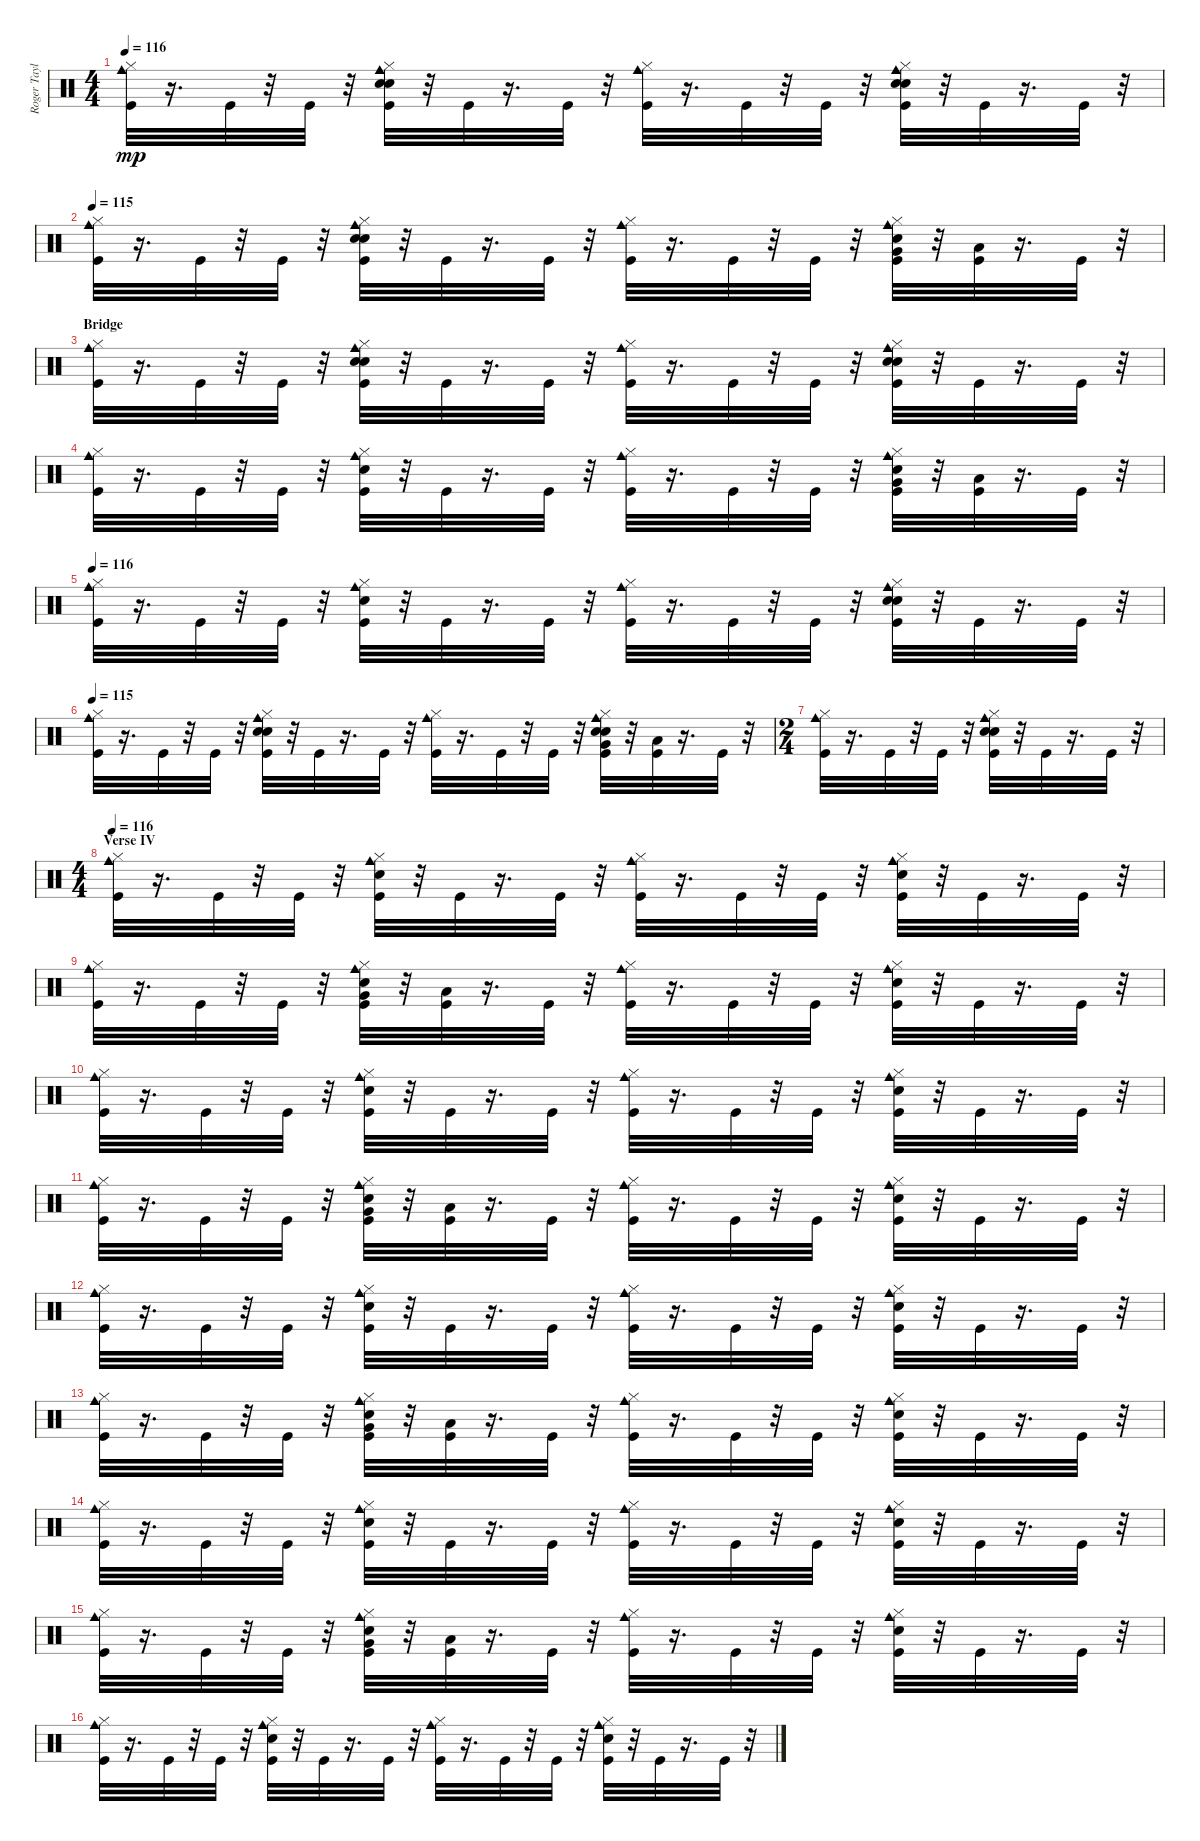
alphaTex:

\track ("Roger Taylor" "Roger Tayl") {instrument percussion}
\staff {score}
\articulation defaults
\ts (4 4)
\tempo 116
\clef neutral
\ks c
("Cowbell medium (hit)" "Hi-Hat (closed)" "Kick (hit)").32{dy mp} r.16{d} "Kick (hit)".32 r.32 "Kick (hit)".32 r.32 ("Hand Clap (hit)" "Snare (hit)" "Cowbell medium (hit)" "Hi-Hat (closed)" "Kick (hit)").32 r.32 "Kick (hit)".32 r.16{d} "Kick (hit)".32 r.32 ("Cowbell medium (hit)" "Hi-Hat (closed)" "Kick (hit)").32 r.16{d} "Kick (hit)".32 r.32 "Kick (hit)".32 r.32 ("Hand Clap (hit)" "Snare (hit)" "Cowbell medium (hit)" "Hi-Hat (closed)" "Kick (hit)").32 r.32 "Kick (hit)".32 r.16{d} "Kick (hit)".32 r.32 |
\tempo 115
("Cowbell medium (hit)" "Hi-Hat (closed)" "Kick (hit)").32 r.16{d} "Kick (hit)".32 r.32 "Kick (hit)".32 r.32 ("Hand Clap (hit)" "Snare (hit)" "Cowbell medium (hit)" "Hi-Hat (closed)" "Kick (hit)").32 r.32 "Kick (hit)".32 r.16{d} "Kick (hit)".32 r.32 ("Cowbell medium (hit)" "Hi-Hat (closed)" "Kick (hit)").32 r.16{d} "Kick (hit)".32 r.32 "Kick (hit)".32 r.32 ("Very Low Tom (hit)" "Snare (hit)" "Cowbell medium (hit)" "Hi-Hat (closed)" "Kick (hit)").32 r.32 ("Low Floor Tom (hit)" "Kick (hit)").32 r.16{d} "Kick (hit)".32 r.32 |
\section ("" "Bridge")
("Cowbell medium (hit)" "Hi-Hat (closed)" "Kick (hit)").32 r.16{d} "Kick (hit)".32 r.32 "Kick (hit)".32 r.32 ("Hand Clap (hit)" "Snare (hit)" "Cowbell medium (hit)" "Hi-Hat (closed)" "Kick (hit)").32 r.32 "Kick (hit)".32 r.16{d} "Kick (hit)".32 r.32 ("Cowbell medium (hit)" "Hi-Hat (closed)" "Kick (hit)").32 r.16{d} "Kick (hit)".32 r.32 "Kick (hit)".32 r.32 ("Hand Clap (hit)" "Snare (hit)" "Cowbell medium (hit)" "Hi-Hat (closed)" "Kick (hit)").32 r.32 "Kick (hit)".32 r.16{d} "Kick (hit)".32 r.32 |
("Cowbell medium (hit)" "Hi-Hat (closed)" "Kick (hit)").32 r.16{d} "Kick (hit)".32 r.32 "Kick (hit)".32 r.32 ("Snare (hit)" "Cowbell medium (hit)" "Hi-Hat (closed)" "Kick (hit)").32 r.32 "Kick (hit)".32 r.16{d} "Kick (hit)".32 r.32 ("Cowbell medium (hit)" "Hi-Hat (closed)" "Kick (hit)").32 r.16{d} "Kick (hit)".32 r.32 "Kick (hit)".32 r.32 ("Very Low Tom (hit)" "Snare (hit)" "Cowbell medium (hit)" "Hi-Hat (closed)" "Kick (hit)").32 r.32 ("Low Floor Tom (hit)" "Kick (hit)").32 r.16{d} "Kick (hit)".32 r.32 |
\tempo 116
("Cowbell medium (hit)" "Hi-Hat (closed)" "Kick (hit)").32 r.16{d} "Kick (hit)".32 r.32 "Kick (hit)".32 r.32 ("Snare (hit)" "Cowbell medium (hit)" "Hi-Hat (closed)" "Kick (hit)").32 r.32 "Kick (hit)".32 r.16{d} "Kick (hit)".32 r.32 ("Cowbell medium (hit)" "Hi-Hat (closed)" "Kick (hit)").32 r.16{d} "Kick (hit)".32 r.32 "Kick (hit)".32 r.32 ("Hand Clap (hit)" "Snare (hit)" "Cowbell medium (hit)" "Hi-Hat (closed)" "Kick (hit)").32 r.32 "Kick (hit)".32 r.16{d} "Kick (hit)".32 r.32 |
\tempo 115
("Cowbell medium (hit)" "Hi-Hat (closed)" "Kick (hit)").32 r.16{d} "Kick (hit)".32 r.32 "Kick (hit)".32 r.32 ("Hand Clap (hit)" "Snare (hit)" "Cowbell medium (hit)" "Hi-Hat (closed)" "Kick (hit)").32 r.32 "Kick (hit)".32 r.16{d} "Kick (hit)".32 r.32 ("Cowbell medium (hit)" "Hi-Hat (closed)" "Kick (hit)").32 r.16{d} "Kick (hit)".32 r.32 "Kick (hit)".32 r.32 ("Hand Clap (hit)" "Very Low Tom (hit)" "Snare (hit)" "Cowbell medium (hit)" "Hi-Hat (closed)" "Kick (hit)").32 r.32 ("Low Floor Tom (hit)" "Kick (hit)").32 r.16{d} "Kick (hit)".32 r.32 |
\ts (2 4)
("Cowbell medium (hit)" "Hi-Hat (closed)" "Kick (hit)").32 r.16{d} "Kick (hit)".32 r.32 "Kick (hit)".32 r.32 ("Hand Clap (hit)" "Snare (hit)" "Cowbell medium (hit)" "Hi-Hat (closed)" "Kick (hit)").32 r.32 "Kick (hit)".32 r.16{d} "Kick (hit)".32 r.32 |
\ts (4 4)
\section ("" "Verse IV")
\tempo 116
("Cowbell medium (hit)" "Hi-Hat (closed)" "Kick (hit)").32 r.16{d} "Kick (hit)".32 r.32 "Kick (hit)".32 r.32 ("Snare (hit)" "Cowbell medium (hit)" "Hi-Hat (closed)" "Kick (hit)").32 r.32 "Kick (hit)".32 r.16{d} "Kick (hit)".32 r.32 ("Cowbell medium (hit)" "Hi-Hat (closed)" "Kick (hit)").32 r.16{d} "Kick (hit)".32 r.32 "Kick (hit)".32 r.32 ("Hand Clap (hit)" "Cowbell medium (hit)" "Hi-Hat (closed)" "Kick (hit)").32 r.32 "Kick (hit)".32 r.16{d} "Kick (hit)".32 r.32 |
("Cowbell medium (hit)" "Hi-Hat (closed)" "Kick (hit)").32 r.16{d} "Kick (hit)".32 r.32 "Kick (hit)".32 r.32 ("Snare (hit)" "Cowbell medium (hit)" "Hi-Hat (closed)" "Very Low Tom (hit)" "Kick (hit)").32 r.32 ("Low Floor Tom (hit)" "Kick (hit)").32 r.16{d} "Kick (hit)".32 r.32 ("Cowbell medium (hit)" "Hi-Hat (closed)" "Kick (hit)").32 r.16{d} "Kick (hit)".32 r.32 "Kick (hit)".32 r.32 ("Hand Clap (hit)" "Cowbell medium (hit)" "Hi-Hat (closed)" "Kick (hit)").32 r.32 "Kick (hit)".32 r.16{d} "Kick (hit)".32 r.32 |
("Cowbell medium (hit)" "Hi-Hat (closed)" "Kick (hit)").32 r.16{d} "Kick (hit)".32 r.32 "Kick (hit)".32 r.32 ("Snare (hit)" "Cowbell medium (hit)" "Hi-Hat (closed)" "Kick (hit)").32 r.32 "Kick (hit)".32 r.16{d} "Kick (hit)".32 r.32 ("Cowbell medium (hit)" "Hi-Hat (closed)" "Kick (hit)").32 r.16{d} "Kick (hit)".32 r.32 "Kick (hit)".32 r.32 ("Hand Clap (hit)" "Cowbell medium (hit)" "Hi-Hat (closed)" "Kick (hit)").32 r.32 "Kick (hit)".32 r.16{d} "Kick (hit)".32 r.32 |
("Cowbell medium (hit)" "Hi-Hat (closed)" "Kick (hit)").32 r.16{d} "Kick (hit)".32 r.32 "Kick (hit)".32 r.32 ("Snare (hit)" "Cowbell medium (hit)" "Hi-Hat (closed)" "Very Low Tom (hit)" "Kick (hit)").32 r.32 ("Low Floor Tom (hit)" "Kick (hit)").32 r.16{d} "Kick (hit)".32 r.32 ("Cowbell medium (hit)" "Hi-Hat (closed)" "Kick (hit)").32 r.16{d} "Kick (hit)".32 r.32 "Kick (hit)".32 r.32 ("Hand Clap (hit)" "Cowbell medium (hit)" "Hi-Hat (closed)" "Kick (hit)").32 r.32 "Kick (hit)".32 r.16{d} "Kick (hit)".32 r.32 |
("Cowbell medium (hit)" "Hi-Hat (closed)" "Kick (hit)").32 r.16{d} "Kick (hit)".32 r.32 "Kick (hit)".32 r.32 ("Snare (hit)" "Cowbell medium (hit)" "Hi-Hat (closed)" "Kick (hit)").32 r.32 "Kick (hit)".32 r.16{d} "Kick (hit)".32 r.32 ("Cowbell medium (hit)" "Hi-Hat (closed)" "Kick (hit)").32 r.16{d} "Kick (hit)".32 r.32 "Kick (hit)".32 r.32 ("Hand Clap (hit)" "Cowbell medium (hit)" "Hi-Hat (closed)" "Kick (hit)").32 r.32 "Kick (hit)".32 r.16{d} "Kick (hit)".32 r.32 |
("Cowbell medium (hit)" "Hi-Hat (closed)" "Kick (hit)").32 r.16{d} "Kick (hit)".32 r.32 "Kick (hit)".32 r.32 ("Very Low Tom (hit)" "Hand Clap (hit)" "Cowbell medium (hit)" "Hi-Hat (closed)" "Kick (hit)").32 r.32 ("Low Floor Tom (hit)" "Kick (hit)").32 r.16{d} "Kick (hit)".32 r.32 ("Cowbell medium (hit)" "Hi-Hat (closed)" "Kick (hit)").32 r.16{d} "Kick (hit)".32 r.32 "Kick (hit)".32 r.32 ("Snare (hit)" "Cowbell medium (hit)" "Hi-Hat (closed)" "Kick (hit)").32 r.32 "Kick (hit)".32 r.16{d} "Kick (hit)".32 r.32 |
("Cowbell medium (hit)" "Hi-Hat (closed)" "Kick (hit)").32 r.16{d} "Kick (hit)".32 r.32 "Kick (hit)".32 r.32 ("Snare (hit)" "Cowbell medium (hit)" "Hi-Hat (closed)" "Kick (hit)").32 r.32 "Kick (hit)".32 r.16{d} "Kick (hit)".32 r.32 ("Cowbell medium (hit)" "Hi-Hat (closed)" "Kick (hit)").32 r.16{d} "Kick (hit)".32 r.32 "Kick (hit)".32 r.32 ("Snare (hit)" "Cowbell medium (hit)" "Hi-Hat (closed)" "Kick (hit)").32 r.32 "Kick (hit)".32 r.16{d} "Kick (hit)".32 r.32 |
("Cowbell medium (hit)" "Hi-Hat (closed)" "Kick (hit)").32 r.16{d} "Kick (hit)".32 r.32 "Kick (hit)".32 r.32 ("Very Low Tom (hit)" "Hand Clap (hit)" "Cowbell medium (hit)" "Hi-Hat (closed)" "Kick (hit)").32 r.32 ("Low Floor Tom (hit)" "Kick (hit)").32 r.16{d} "Kick (hit)".32 r.32 ("Cowbell medium (hit)" "Hi-Hat (closed)" "Kick (hit)").32 r.16{d} "Kick (hit)".32 r.32 "Kick (hit)".32 r.32 ("Snare (hit)" "Cowbell medium (hit)" "Hi-Hat (closed)" "Kick (hit)").32 r.32 "Kick (hit)".32 r.16{d} "Kick (hit)".32 r.32 |
("Cowbell medium (hit)" "Hi-Hat (closed)" "Kick (hit)").32 r.16{d} "Kick (hit)".32 r.32 "Kick (hit)".32 r.32 ("Snare (hit)" "Cowbell medium (hit)" "Hi-Hat (closed)" "Kick (hit)").32 r.32 "Kick (hit)".32 r.16{d} "Kick (hit)".32 r.32 ("Cowbell medium (hit)" "Hi-Hat (closed)" "Kick (hit)").32 r.16{d} "Kick (hit)".32 r.32 "Kick (hit)".32 r.32 ("Snare (hit)" "Cowbell medium (hit)" "Hi-Hat (closed)" "Kick (hit)").32 r.32 "Kick (hit)".32 r.16{d} "Kick (hit)".32 r.32
